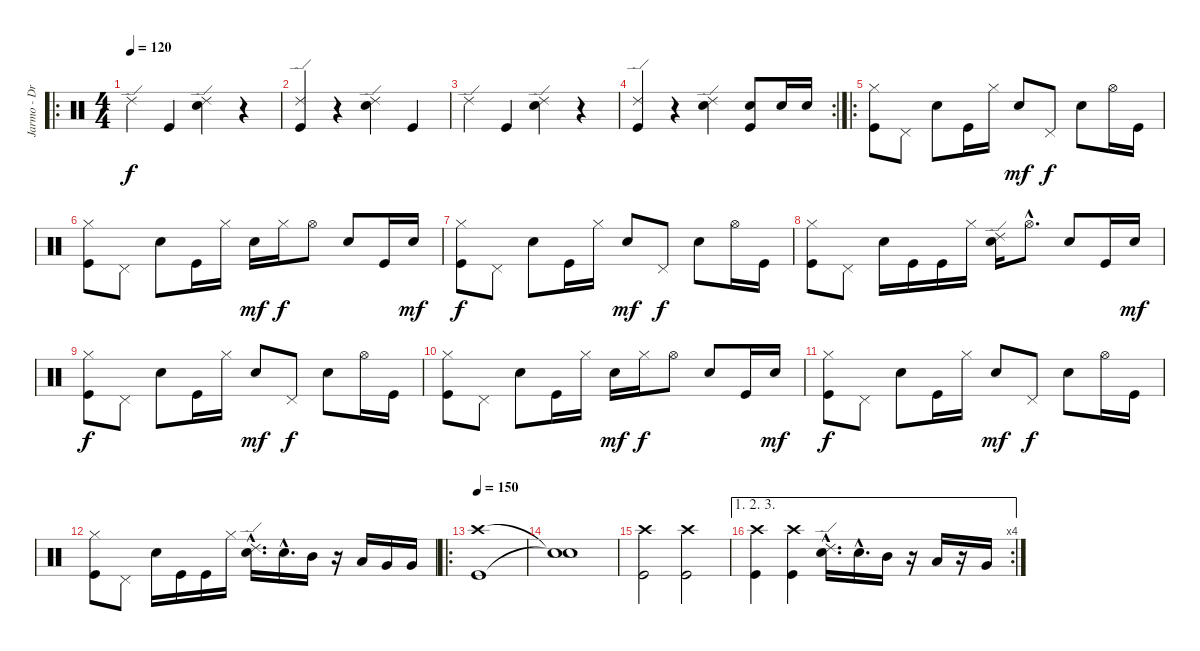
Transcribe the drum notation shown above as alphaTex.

\track ("Jarmo - Drums/Vodka" "Jarmo - Dr") {instrument percussion}
\staff {score}
\articulation defaults
\ro
\ts (4 4)
\tempo 120
\clef neutral
\ks c "Ride (edge) 2".4{dy f} "Kick (hit)".4
("Electric Snare (hit)" "Ride (edge) 2").4 r.4 |
("Kick (hit)" "Ride (edge) 2").4 r.4 ("Electric Snare (hit)" "Ride (edge) 2").4 "Kick (hit)".4 |
"Ride (edge) 2".4 "Kick (hit)".4 ("Electric Snare (hit)" "Ride (edge) 2").4 r.4 |
\rc 2
("Kick (hit)" "Ride (edge) 2").4 r.4 ("Electric Snare (hit)" "Ride (edge) 2").4 ("Kick (hit)" "Electric Snare (hit)").8 "Electric Snare (hit)".16 "Electric Snare (hit)".16 |
\ro
("Kick (hit)" "Hi-Hat (closed)").8 "Pedal Hi-Hat (hit)".8 "Electric Snare (hit)".8 "Kick (hit)".16 "Hi-Hat (closed)".16 "Electric Snare (hit)".8{dy mf} "Pedal Hi-Hat (hit)".8{dy f} "Electric Snare (hit)".8 "Hi-Hat (open)".16 "Kick (hit)".16 |
("Kick (hit)" "Hi-Hat (closed)").8 "Pedal Hi-Hat (hit)".8 "Electric Snare (hit)".8 "Kick (hit)".16 "Hi-Hat (closed)".16 "Electric Snare (hit)".16{dy mf} "Hi-Hat (closed)".16{dy f} "Hi-Hat (open)".8 "Electric Snare (hit)".8 "Kick (hit)".16 "Electric Snare (hit)".16{dy mf} |
("Kick (hit)" "Hi-Hat (closed)").8{dy f} "Pedal Hi-Hat (hit)".8 "Electric Snare (hit)".8 "Kick (hit)".16 "Hi-Hat (closed)".16 "Electric Snare (hit)".8{dy mf} "Pedal Hi-Hat (hit)".8{dy f} "Electric Snare (hit)".8 "Hi-Hat (open)".16 "Kick (hit)".16 |
("Kick (hit)" "Hi-Hat (closed)").8 "Pedal Hi-Hat (hit)".8 "Electric Snare (hit)".16 "Kick (hit)".16 "Kick (hit)".16 "Hi-Hat (closed)".16 ("Electric Snare (hit)" "Ride (edge) 2").16 "Hi-Hat (open)"{hac}.8{d} "Electric Snare (hit)".8 "Kick (hit)".16 "Electric Snare (hit)".16{dy mf} |
("Kick (hit)" "Hi-Hat (closed)").8{dy f} "Pedal Hi-Hat (hit)".8 "Electric Snare (hit)".8 "Kick (hit)".16 "Hi-Hat (closed)".16 "Electric Snare (hit)".8{dy mf} "Pedal Hi-Hat (hit)".8{dy f} "Electric Snare (hit)".8 "Hi-Hat (open)".16 "Kick (hit)".16 |
("Kick (hit)" "Hi-Hat (closed)").8 "Pedal Hi-Hat (hit)".8 "Electric Snare (hit)".8 "Kick (hit)".16 "Hi-Hat (closed)".16 "Electric Snare (hit)".16{dy mf} "Hi-Hat (closed)".16{dy f} "Hi-Hat (open)".8 "Electric Snare (hit)".8 "Kick (hit)".16 "Electric Snare (hit)".16{dy mf} |
("Kick (hit)" "Hi-Hat (closed)").8{dy f} "Pedal Hi-Hat (hit)".8 "Electric Snare (hit)".8 "Kick (hit)".16 "Hi-Hat (closed)".16 "Electric Snare (hit)".8{dy mf} "Pedal Hi-Hat (hit)".8{dy f} "Electric Snare (hit)".8 "Hi-Hat (open)".16 "Kick (hit)".16 |
("Kick (hit)" "Hi-Hat (closed)").8 "Pedal Hi-Hat (hit)".8 "Electric Snare (hit)".16 "Kick (hit)".16 "Kick (hit)".16 "Hi-Hat (closed)".16 ("Electric Snare (hit)"{hac} "Ride (edge) 2"{hac}).16{d} "Electric Snare (hit)"{hac}.16{d} "Mid Tom (hit)".16 r.16 "Low Tom (hit)".16 "Very Low Tom (hit)".16 "Very Low Tom (hit)".16 |
\ro
\tempo 150
("Kick (hit)" "Crash high (hit)").1 |
("Snare (hit)"{t} "Snare (hit)"{t}).1 |
("Kick (hit)" "Crash high (hit)").2 ("Kick (hit)" "Crash high (hit)").2 |
\ae (1 2 3)
\rc 4
("Kick (hit)" "Crash high (hit)").4 ("Kick (hit)" "Crash high (hit)").4 ("Electric Snare (hit)"{hac} "Ride (edge) 2"{hac}).16{d} "Electric Snare (hit)"{hac}.16{d} "Mid Tom (hit)".16 r.16 "Low Tom (hit)".16 r.16 "Very Low Tom (hit)".16
